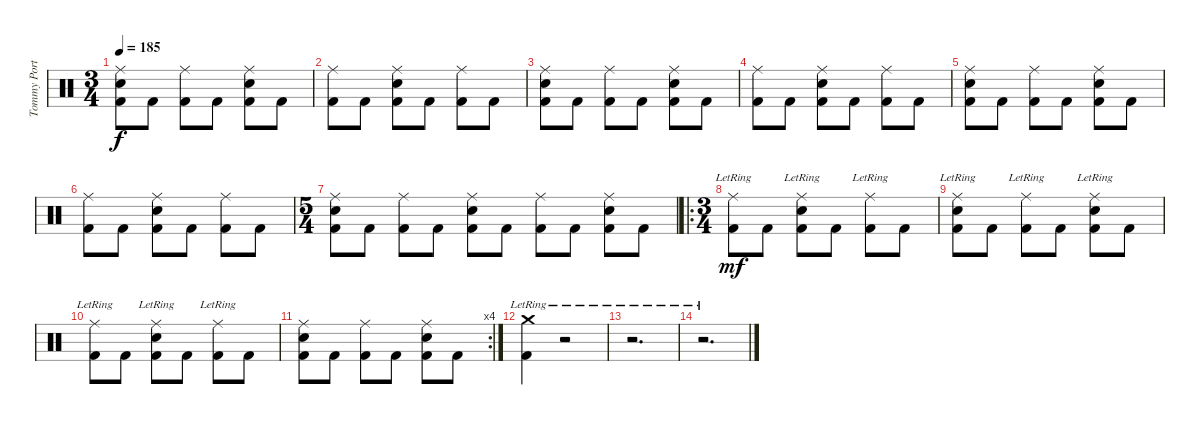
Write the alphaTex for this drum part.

\track ("Tommy Portino" "Tommy Port") {instrument percussion}
\staff {score}
\articulation defaults
\ts (3 4)
\tempo 185
\clef neutral
\ks c
("Ride (middle)" "Snare (hit) 2" "Kick (hit) 2").8{dy f} "Kick (hit) 2".8 ("Ride (middle)" "Kick (hit) 2").8 "Kick (hit) 2".8 ("Ride (middle)" "Snare (hit) 2" "Kick (hit) 2").8 "Kick (hit) 2".8 |
("Ride (middle)" "Kick (hit) 2").8 "Kick (hit) 2".8 ("Ride (middle)" "Snare (hit) 2" "Kick (hit) 2").8 "Kick (hit) 2".8 ("Ride (middle)" "Kick (hit) 2").8 "Kick (hit) 2".8 |
("Ride (middle)" "Snare (hit) 2" "Kick (hit) 2").8 "Kick (hit) 2".8 ("Ride (middle)" "Kick (hit) 2").8 "Kick (hit) 2".8 ("Ride (middle)" "Snare (hit) 2" "Kick (hit) 2").8 "Kick (hit) 2".8 |
("Ride (middle)" "Kick (hit) 2").8 "Kick (hit) 2".8 ("Ride (middle)" "Snare (hit) 2" "Kick (hit) 2").8 "Kick (hit) 2".8 ("Ride (middle)" "Kick (hit) 2").8 "Kick (hit) 2".8 |
("Ride (middle)" "Snare (hit) 2" "Kick (hit) 2").8 "Kick (hit) 2".8 ("Ride (middle)" "Kick (hit) 2").8 "Kick (hit) 2".8 ("Ride (middle)" "Snare (hit) 2" "Kick (hit) 2").8 "Kick (hit) 2".8 |
("Ride (middle)" "Kick (hit) 2").8 "Kick (hit) 2".8 ("Ride (middle)" "Snare (hit) 2" "Kick (hit) 2").8 "Kick (hit) 2".8 ("Ride (middle)" "Kick (hit) 2").8 "Kick (hit) 2".8 |
\ts (5 4)
("Ride (middle)" "Snare (hit) 2" "Kick (hit) 2").8 "Kick (hit) 2".8 ("Ride (middle)" "Kick (hit) 2").8 "Kick (hit) 2".8 ("Ride (middle)" "Snare (hit) 2" "Kick (hit) 2").8 "Kick (hit) 2".8 ("Ride (middle)" "Kick (hit) 2").8 "Kick (hit) 2".8 ("Ride (middle)" "Snare (hit) 2" "Kick (hit) 2").8 "Kick (hit) 2".8 |
\ro
\ts (3 4)
("Ride (middle)"{lr} "Kick (hit) 2").8{dy mf} "Kick (hit) 2".8 ("Ride (middle)"{lr} "Snare (hit) 2" "Kick (hit) 2").8 "Kick (hit) 2".8 ("Ride (middle)"{lr} "Kick (hit) 2").8 "Kick (hit) 2".8 |
("Ride (middle)"{lr} "Snare (hit) 2" "Kick (hit) 2").8 "Kick (hit) 2".8 ("Ride (middle)"{lr} "Kick (hit) 2").8 "Kick (hit) 2".8 ("Ride (middle)"{lr} "Snare (hit) 2" "Kick (hit) 2").8 "Kick (hit) 2".8 |
("Ride (middle)"{lr} "Kick (hit) 2").8 "Kick (hit) 2".8 ("Ride (middle)"{lr} "Snare (hit) 2" "Kick (hit) 2").8 "Kick (hit) 2".8 ("Ride (middle)"{lr} "Kick (hit) 2").8 "Kick (hit) 2".8 |
\rc 4
("Ride (middle)" "Snare (hit) 2" "Kick (hit) 2").8 "Kick (hit) 2".8 ("Ride (middle)" "Kick (hit) 2").8 "Kick (hit) 2".8 ("Ride (middle)" "Snare (hit) 2" "Kick (hit) 2").8 "Kick (hit) 2".8 |
("Crash medium (hit)"{lr} "Kick (hit) 2").4 r.2 |
r.2{d} |
r.2{d}
